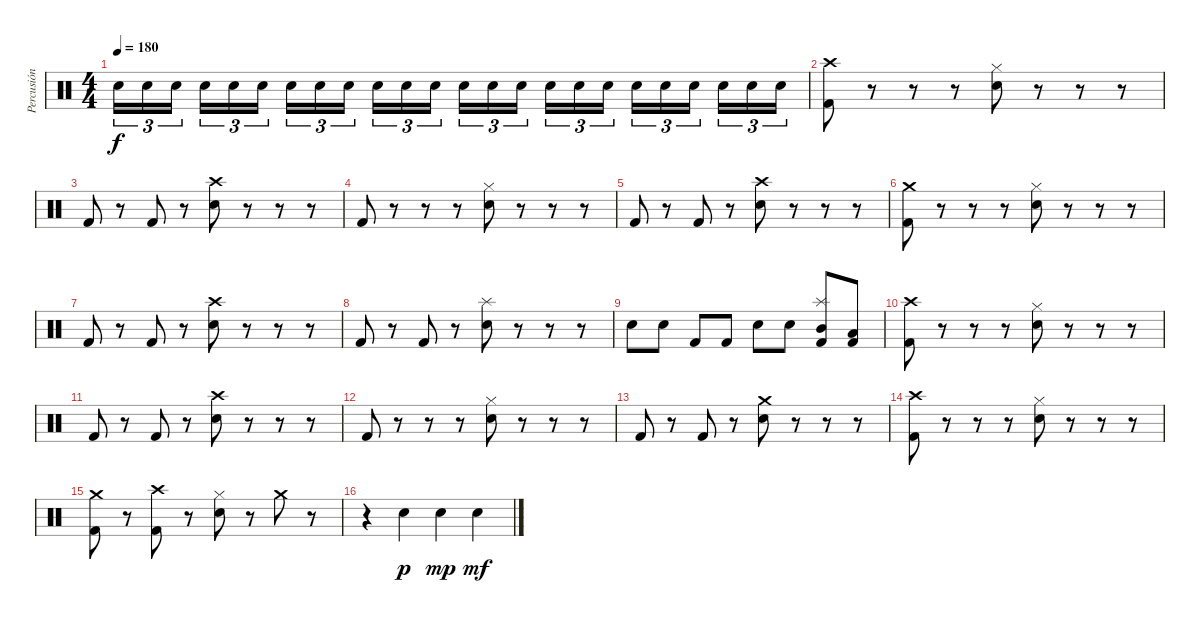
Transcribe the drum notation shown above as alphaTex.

\track ("Percusión" "Percusión") {instrument percussion}
\staff {score}
\articulation defaults
\ts (4 4)
\tempo 180
\clef neutral
\ks c "Snare (hit) 2".16{tu (3 2) dy f} "Snare (hit) 2".16{tu (3 2)} "Snare (hit) 2".16{tu (3 2)} "Snare (hit) 2".16{tu (3 2)} "Snare (hit) 2".16{tu (3 2)} "Snare (hit) 2".16{tu (3 2)} "Snare (hit) 2".16{tu (3 2)} "Snare (hit) 2".16{tu (3 2)} "Snare (hit) 2".16{tu (3 2)} "Snare (hit) 2".16{tu (3 2)} "Snare (hit) 2".16{tu (3 2)} "Snare (hit) 2".16{tu (3 2)} "Snare (hit) 2".16{tu (3 2)} "Snare (hit) 2".16{tu (3 2)} "Snare (hit) 2".16{tu (3 2)} "Snare (hit) 2".16{tu (3 2)} "Snare (hit) 2".16{tu (3 2)} "Snare (hit) 2".16{tu (3 2)} "Snare (hit) 2".16{tu (3 2)} "Snare (hit) 2".16{tu (3 2)} "Snare (hit) 2".16{tu (3 2)} "Snare (hit) 2".16{tu (3 2)} "Snare (hit) 2".16{tu (3 2)} "Snare (hit) 2".16{tu (3 2)}
|
("Crash high (hit)" "Kick (hit) 2").8 r.8 r.8 r.8 ("Hi-Hat (closed)" "Snare (hit) 2").8 r.8 r.8 r.8 |
"Kick (hit) 2".8 r.8 "Kick (hit) 2".8 r.8 ("Crash high (hit)" "Snare (hit) 2").8 r.8 r.8 r.8 |
"Kick (hit) 2".8 r.8 r.8 r.8 ("Hi-Hat (closed)" "Snare (hit) 2").8 r.8 r.8 r.8 |
"Kick (hit) 2".8 r.8 "Kick (hit) 2".8 r.8 ("Crash high (hit)" "Snare (hit) 2").8 r.8 r.8 r.8 |
("Crash medium (hit)" "Kick (hit) 2").8 r.8 r.8 r.8 ("Hi-Hat (closed)" "Snare (hit) 2").8 r.8 r.8 r.8 |
"Kick (hit) 2".8 r.8 "Kick (hit) 2".8 r.8 ("Crash high (hit)" "Snare (hit) 2").8 r.8 r.8 r.8 |
"Kick (hit) 2".8 r.8 "Kick (hit) 2".8 r.8 ("Splash (hit)" "Snare (hit) 2").8 r.8 r.8 r.8 |
"Snare (hit) 2".8 "Snare (hit) 2".8 "Kick (hit) 2".8 "Kick (hit) 2".8 "Snare (hit) 2".8 "Snare (hit) 2".8 ("Splash (hit)" "Mid Tom (hit)" "Kick (hit) 2").8 ("Low Tom (hit)" "Kick (hit) 2").8 |
("Crash high (hit)" "Kick (hit) 2").8 r.8 r.8 r.8 ("Hi-Hat (closed)" "Snare (hit) 2").8 r.8 r.8 r.8 |
"Kick (hit) 2".8 r.8 "Kick (hit) 2".8 r.8 ("Crash high (hit)" "Snare (hit) 2").8 r.8 r.8 r.8 |
"Kick (hit) 2".8 r.8 r.8 r.8 ("Hi-Hat (closed)" "Snare (hit) 2").8 r.8 r.8 r.8 |
"Kick (hit) 2".8 r.8 "Kick (hit) 2".8 r.8 ("Crash medium (hit)" "Snare (hit) 2").8 r.8 r.8 r.8 |
("Crash high (hit)" "Kick (hit) 2").8 r.8 r.8 r.8 ("Hi-Hat (closed)" "Snare (hit) 2").8 r.8 r.8 r.8 |
("Crash medium (hit)" "Kick (hit) 2").8 r.8 ("Crash high (hit)" "Kick (hit) 2").8 r.8 ("Hi-Hat (closed)" "Snare (hit) 2").8 r.8 "Crash medium (hit)".8 r.8 |
r.4 "Snare (hit) 2".4{dy p} "Snare (hit) 2".4{dy mp} "Snare (hit) 2".4{dy mf}
